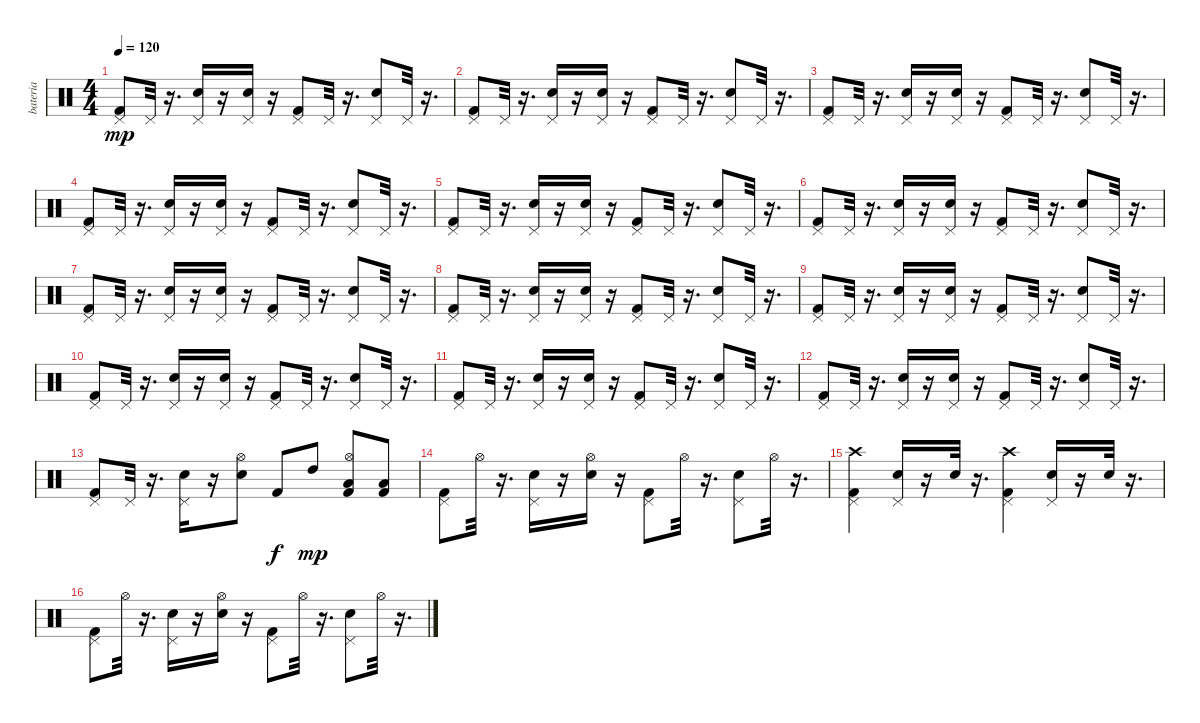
\track ("bateria" "bateria") {instrument percussion}
\staff {score}
\articulation defaults
\ts (4 4)
\tempo 120
\clef neutral
\ks c
("Kick (hit) 2" "Pedal Hi-Hat (hit)").8{dy mp} "Pedal Hi-Hat (hit)".32 r.16{d} ("Snare (hit) 2" "Pedal Hi-Hat (hit)").16 r.16 ("Snare (hit) 2" "Pedal Hi-Hat (hit)").16 r.16 ("Kick (hit) 2" "Pedal Hi-Hat (hit)").8 "Pedal Hi-Hat (hit)".32 r.16{d} ("Snare (hit) 2" "Pedal Hi-Hat (hit)").8 "Pedal Hi-Hat (hit)".32 r.16{d} |
("Kick (hit) 2" "Pedal Hi-Hat (hit)").8 "Pedal Hi-Hat (hit)".32 r.16{d} ("Snare (hit) 2" "Pedal Hi-Hat (hit)").16 r.16 ("Snare (hit) 2" "Pedal Hi-Hat (hit)").16 r.16 ("Kick (hit) 2" "Pedal Hi-Hat (hit)").8 "Pedal Hi-Hat (hit)".32 r.16{d} ("Snare (hit) 2" "Pedal Hi-Hat (hit)").8 "Pedal Hi-Hat (hit)".32 r.16{d} |
("Kick (hit) 2" "Pedal Hi-Hat (hit)").8 "Pedal Hi-Hat (hit)".32 r.16{d} ("Snare (hit) 2" "Pedal Hi-Hat (hit)").16 r.16 ("Snare (hit) 2" "Pedal Hi-Hat (hit)").16 r.16 ("Kick (hit) 2" "Pedal Hi-Hat (hit)").8 "Pedal Hi-Hat (hit)".32 r.16{d} ("Snare (hit) 2" "Pedal Hi-Hat (hit)").8 "Pedal Hi-Hat (hit)".32 r.16{d} |
("Kick (hit) 2" "Pedal Hi-Hat (hit)").8 "Pedal Hi-Hat (hit)".32 r.16{d} ("Snare (hit) 2" "Pedal Hi-Hat (hit)").16 r.16 ("Snare (hit) 2" "Pedal Hi-Hat (hit)").16 r.16 ("Kick (hit) 2" "Pedal Hi-Hat (hit)").8 "Pedal Hi-Hat (hit)".32 r.16{d} ("Snare (hit) 2" "Pedal Hi-Hat (hit)").8 "Pedal Hi-Hat (hit)".32 r.16{d} |
("Kick (hit) 2" "Pedal Hi-Hat (hit)").8 "Pedal Hi-Hat (hit)".32 r.16{d} ("Snare (hit) 2" "Pedal Hi-Hat (hit)").16 r.16 ("Snare (hit) 2" "Pedal Hi-Hat (hit)").16 r.16 ("Kick (hit) 2" "Pedal Hi-Hat (hit)").8 "Pedal Hi-Hat (hit)".32 r.16{d} ("Snare (hit) 2" "Pedal Hi-Hat (hit)").8 "Pedal Hi-Hat (hit)".32 r.16{d} |
("Kick (hit) 2" "Pedal Hi-Hat (hit)").8 "Pedal Hi-Hat (hit)".32 r.16{d} ("Snare (hit) 2" "Pedal Hi-Hat (hit)").16 r.16 ("Snare (hit) 2" "Pedal Hi-Hat (hit)").16 r.16 ("Kick (hit) 2" "Pedal Hi-Hat (hit)").8 "Pedal Hi-Hat (hit)".32 r.16{d} ("Snare (hit) 2" "Pedal Hi-Hat (hit)").8 "Pedal Hi-Hat (hit)".32 r.16{d} |
("Kick (hit) 2" "Pedal Hi-Hat (hit)").8 "Pedal Hi-Hat (hit)".32 r.16{d} ("Snare (hit) 2" "Pedal Hi-Hat (hit)").16 r.16 ("Snare (hit) 2" "Pedal Hi-Hat (hit)").16 r.16 ("Kick (hit) 2" "Pedal Hi-Hat (hit)").8 "Pedal Hi-Hat (hit)".32 r.16{d} ("Snare (hit) 2" "Pedal Hi-Hat (hit)").8 "Pedal Hi-Hat (hit)".32 r.16{d} |
("Kick (hit) 2" "Pedal Hi-Hat (hit)").8 "Pedal Hi-Hat (hit)".32 r.16{d} ("Snare (hit) 2" "Pedal Hi-Hat (hit)").16 r.16 ("Snare (hit) 2" "Pedal Hi-Hat (hit)").16 r.16 ("Kick (hit) 2" "Pedal Hi-Hat (hit)").8 "Pedal Hi-Hat (hit)".32 r.16{d} ("Snare (hit) 2" "Pedal Hi-Hat (hit)").8 "Pedal Hi-Hat (hit)".32 r.16{d} |
("Kick (hit) 2" "Pedal Hi-Hat (hit)").8 "Pedal Hi-Hat (hit)".32 r.16{d} ("Snare (hit) 2" "Pedal Hi-Hat (hit)").16 r.16 ("Snare (hit) 2" "Pedal Hi-Hat (hit)").16 r.16 ("Kick (hit) 2" "Pedal Hi-Hat (hit)").8 "Pedal Hi-Hat (hit)".32 r.16{d} ("Snare (hit) 2" "Pedal Hi-Hat (hit)").8 "Pedal Hi-Hat (hit)".32 r.16{d} |
("Kick (hit) 2" "Pedal Hi-Hat (hit)").8 "Pedal Hi-Hat (hit)".32 r.16{d} ("Snare (hit) 2" "Pedal Hi-Hat (hit)").16 r.16 ("Snare (hit) 2" "Pedal Hi-Hat (hit)").16 r.16 ("Kick (hit) 2" "Pedal Hi-Hat (hit)").8 "Pedal Hi-Hat (hit)".32 r.16{d} ("Snare (hit) 2" "Pedal Hi-Hat (hit)").8 "Pedal Hi-Hat (hit)".32 r.16{d} |
("Kick (hit) 2" "Pedal Hi-Hat (hit)").8 "Pedal Hi-Hat (hit)".32 r.16{d} ("Snare (hit) 2" "Pedal Hi-Hat (hit)").16 r.16 ("Snare (hit) 2" "Pedal Hi-Hat (hit)").16 r.16 ("Kick (hit) 2" "Pedal Hi-Hat (hit)").8 "Pedal Hi-Hat (hit)".32 r.16{d} ("Snare (hit) 2" "Pedal Hi-Hat (hit)").8 "Pedal Hi-Hat (hit)".32 r.16{d} |
("Kick (hit) 2" "Pedal Hi-Hat (hit)").8 "Pedal Hi-Hat (hit)".32 r.16{d} ("Snare (hit) 2" "Pedal Hi-Hat (hit)").16 r.16 ("Snare (hit) 2" "Pedal Hi-Hat (hit)").16 r.16 ("Kick (hit) 2" "Pedal Hi-Hat (hit)").8 "Pedal Hi-Hat (hit)".32 r.16{d} ("Snare (hit) 2" "Pedal Hi-Hat (hit)").8 "Pedal Hi-Hat (hit)".32 r.16{d} |
("Kick (hit) 2" "Pedal Hi-Hat (hit)").8 "Pedal Hi-Hat (hit)".32 r.16{d} ("Snare (hit) 2" "Pedal Hi-Hat (hit)").16 r.16 ("Snare (hit) 2" "Hi-Hat (open)").8 "Kick (hit) 2".8{dy f} "High Tom (hit)".8{dy mp} ("Low Tom (hit)" "Hi-Hat (open)" "Kick (hit) 2").8 ("Low Floor Tom (hit)" "Kick (hit) 2").8 |
("Kick (hit) 2" "Pedal Hi-Hat (hit)").8 "Hi-Hat (open)".32 r.16{d} ("Snare (hit) 2" "Pedal Hi-Hat (hit)").16 r.16 ("Snare (hit) 2" "Hi-Hat (open)").16 r.16 ("Kick (hit) 2" "Pedal Hi-Hat (hit)").8 "Hi-Hat (open)".32 r.16{d} ("Snare (hit) 2" "Pedal Hi-Hat (hit)").8 "Hi-Hat (open)".32 r.16{d} |
("Kick (hit) 2" "Pedal Hi-Hat (hit)" "Crash high (hit)").4 ("Snare (hit) 2" "Pedal Hi-Hat (hit)").16 r.16 "Snare (hit) 2".32 r.16{d} ("Kick (hit) 2" "Pedal Hi-Hat (hit)" "Crash high (hit)").4 ("Snare (hit) 2" "Pedal Hi-Hat (hit)").16 r.16 "Snare (hit) 2".32 r.16{d} |
("Kick (hit) 2" "Pedal Hi-Hat (hit)").8 "Hi-Hat (open)".32 r.16{d} ("Snare (hit) 2" "Pedal Hi-Hat (hit)").16 r.16 ("Snare (hit) 2" "Hi-Hat (open)").16 r.16 ("Kick (hit) 2" "Pedal Hi-Hat (hit)").8 "Hi-Hat (open)".32 r.16{d} ("Snare (hit) 2" "Pedal Hi-Hat (hit)").8 "Hi-Hat (open)".32 r.16{d}
